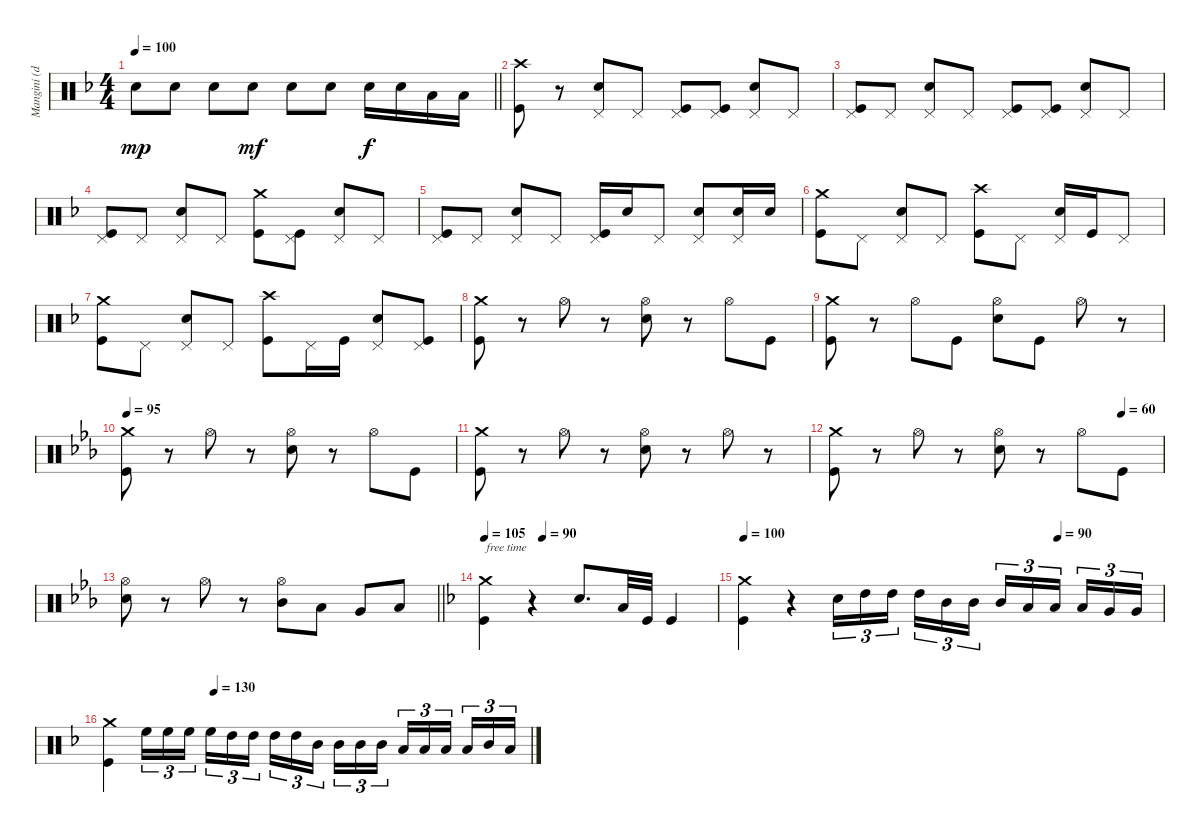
\track ("Mangini (drums)" "Mangini (d") {instrument percussion}
\staff {score}
\articulation defaults
\ts (4 4)
\tempo 100
\clef neutral
\barLineRight lightlight
\ks dminor "Snare (hit) 2".8{dy mp} "Snare (hit) 2".8 "Snare (hit) 2".8 "Snare (hit) 2".8{dy mf} "Snare (hit) 2".8 "Snare (hit) 2".8 "Snare (hit) 2".16{dy f} "Snare (hit) 2".16 "Low Tom (hit)".16 "Low Tom (hit)".16
|
("Crash high (hit)" "Kick (hit)").8 r.8 ("Pedal Hi-Hat (hit)" "Snare (hit) 2").8 "Pedal Hi-Hat (hit)".8 ("Pedal Hi-Hat (hit)" "Kick (hit)").8 ("Pedal Hi-Hat (hit)" "Kick (hit)").8 ("Pedal Hi-Hat (hit)" "Snare (hit) 2").8 "Pedal Hi-Hat (hit)".8 |
("Pedal Hi-Hat (hit)" "Kick (hit)").8 "Pedal Hi-Hat (hit)".8 ("Pedal Hi-Hat (hit)" "Snare (hit) 2").8 "Pedal Hi-Hat (hit)".8 ("Pedal Hi-Hat (hit)" "Kick (hit)").8 ("Pedal Hi-Hat (hit)" "Kick (hit)").8 ("Pedal Hi-Hat (hit)" "Snare (hit) 2").8 "Pedal Hi-Hat (hit)".8 |
("Pedal Hi-Hat (hit)" "Kick (hit)").8 "Pedal Hi-Hat (hit)".8 ("Pedal Hi-Hat (hit)" "Snare (hit) 2").8 "Pedal Hi-Hat (hit)".8 ("Crash medium (hit)" "Kick (hit)").8 ("Pedal Hi-Hat (hit)" "Kick (hit)").8 ("Pedal Hi-Hat (hit)" "Snare (hit) 2").8 "Pedal Hi-Hat (hit)".8 |
("Pedal Hi-Hat (hit)" "Kick (hit)").8 "Pedal Hi-Hat (hit)".8 ("Pedal Hi-Hat (hit)" "Snare (hit) 2").8 "Pedal Hi-Hat (hit)".8 ("Pedal Hi-Hat (hit)" "Kick (hit)").16 "Snare (hit) 2".16 "Pedal Hi-Hat (hit)".8 ("Pedal Hi-Hat (hit)" "Snare (hit) 2").8 ("Pedal Hi-Hat (hit)" "Snare (hit) 2").16 "Snare (hit) 2".16 |
("Crash medium (hit)" "Kick (hit)").8 "Pedal Hi-Hat (hit)".8 ("Pedal Hi-Hat (hit)" "Snare (hit) 2").8 "Pedal Hi-Hat (hit)".8 ("Crash high (hit)" "Kick (hit)").8 "Pedal Hi-Hat (hit)".8 ("Pedal Hi-Hat (hit)" "Snare (hit) 2").16 "Kick (hit)".16 "Pedal Hi-Hat (hit)".8 |
("Crash medium (hit)" "Kick (hit)").8 "Pedal Hi-Hat (hit)".8 ("Pedal Hi-Hat (hit)" "Snare (hit) 2").8 "Pedal Hi-Hat (hit)".8 ("Crash high (hit)" "Kick (hit)").8 "Pedal Hi-Hat (hit)".16 "Kick (hit)".16 ("Pedal Hi-Hat (hit)" "Snare (hit) 2").8 ("Pedal Hi-Hat (hit)" "Kick (hit)").8 |
("Crash medium (hit)" "Kick (hit)").8 r.8 "Hi-Hat (open)".8 r.8 ("Hi-Hat (open)" "Snare (hit) 2").8 r.8 "Hi-Hat (open)".8 "Kick (hit)".8 |
("Crash medium (hit)" "Kick (hit)").8 r.8 "Hi-Hat (open)".8 "Kick (hit)".8 ("Hi-Hat (open)" "Snare (hit) 2").8 "Kick (hit)".8 "Hi-Hat (open)".8 r.8 |
\tempo 95
\ks cminor
("Crash medium (hit)" "Kick (hit)").8 r.8 "Hi-Hat (open)".8 r.8 ("Hi-Hat (open)" "Snare (hit) 2").8 r.8 "Hi-Hat (open)".8 "Kick (hit)".8 |
("Crash medium (hit)" "Kick (hit)").8 r.8 "Hi-Hat (open)".8 r.8 ("Hi-Hat (open)" "Snare (hit) 2").8 r.8 "Hi-Hat (open)".8 r.8 |
\tempo (60 0.875)
("Crash medium (hit)" "Kick (hit)").8 r.8 "Hi-Hat (open)".8 r.8 ("Hi-Hat (open)" "Snare (hit) 2").8 r.8 "Hi-Hat (open)".8 "Kick (hit)".8 |
\barLineRight lightlight
("Hi-Hat (open)" "Snare (hit) 2").8 r.8 "Hi-Hat (open)".8 r.8 ("Hi-Hat (open)" "Mid Tom (hit)").8 "Low Tom (hit)".8 "Very Low Tom (hit)".8 "Low Floor Tom (hit)".8 |
\tempo 105
\tempo (90 0.25)
\ks dminor
("Crash medium (hit)" "Kick (hit)").4{txt "free time"} r.4 "Snare (hit) 2".8{d} "Low Tom (hit)".32 "Kick (hit)".32 "Kick (hit)".4 |
\tempo 100
\tempo (90 0.75)
("Crash medium (hit)" "Kick (hit)").4 r.4 "Snare (hit) 2".16{tu (3 2)} "High Tom (hit)".16{tu (3 2)} "High Tom (hit)".16{tu (3 2) beam splitsecondary} "High Tom (hit)".16{tu (3 2)} "Mid Tom (hit)".16{tu (3 2)} "Mid Tom (hit)".16{tu (3 2)} "Mid Tom (hit)".16{tu (3 2)} "Low Tom (hit)".16{tu (3 2)} "Low Tom (hit)".16{tu (3 2) beam splitsecondary} "Low Tom (hit)".16{tu (3 2)} "Very Low Tom (hit)".16{tu (3 2)} "Very Low Tom (hit)".16{tu (3 2)} |
\tempo (130 0.25)
("Crash medium (hit)" "Kick (hit)").4 "High Floor Tom (hit)".16{tu (3 2)} "High Floor Tom (hit)".16{tu (3 2)} "High Floor Tom (hit)".16{tu (3 2) beam splitsecondary} "High Floor Tom (hit)".16{tu (3 2)} "High Tom (hit)".16{tu (3 2)} "High Tom (hit)".16{tu (3 2)} "High Tom (hit)".16{tu (3 2)} "High Tom (hit)".16{tu (3 2)} "Mid Tom (hit)".16{tu (3 2) beam splitsecondary} "Mid Tom (hit)".16{tu (3 2)} "Mid Tom (hit)".16{tu (3 2)} "Mid Tom (hit)".16{tu (3 2)} "Low Tom (hit)".16{tu (3 2)} "Low Tom (hit)".16{tu (3 2)} "Low Tom (hit)".16{tu (3 2) beam splitsecondary} "Low Tom (hit)".16{tu (3 2)} "Mid Tom (hit)".16{tu (3 2)} "Low Tom (hit)".16{tu (3 2)}
